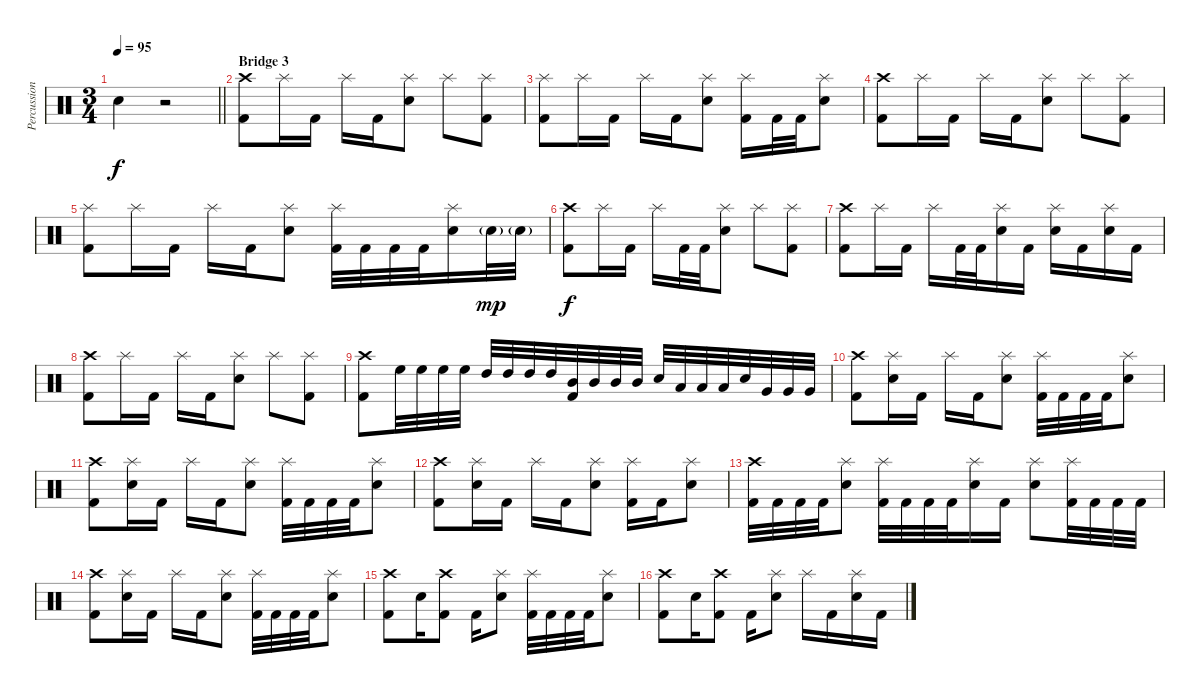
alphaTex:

\track ("Percussion Mike" "Percussion") {instrument percussion}
\staff {score}
\articulation defaults
\ts (3 4)
\tempo 95
\clef neutral
\barLineRight lightlight
\ks c "Snare (hit) 2".4{dy f}
r.2 |
\section ("" "Bridge 3")
("Crash high (hit)" "Kick (hit) 2").8 "Splash (hit)".16 "Kick (hit) 2".16 "Splash (hit)".16 "Kick (hit) 2".16 ("Splash (hit)" "Snare (hit) 2").8 "Splash (hit)".8 ("Splash (hit)" "Kick (hit) 2").8 |
("Splash (hit)" "Kick (hit) 2").8 "Splash (hit)".16 "Kick (hit) 2".16 "Splash (hit)".16 "Kick (hit) 2".16 ("Splash (hit)" "Snare (hit) 2").8 ("Splash (hit)" "Kick (hit) 2").16 "Kick (hit) 2".32 "Kick (hit) 2".32 ("Splash (hit)" "Snare (hit) 2").8 |
("Crash high (hit)" "Kick (hit) 2").8 "Splash (hit)".16 "Kick (hit) 2".16 "Splash (hit)".16 "Kick (hit) 2".16 ("Splash (hit)" "Snare (hit) 2").8 "Splash (hit)".8 ("Splash (hit)" "Kick (hit) 2").8 |
("Splash (hit)" "Kick (hit) 2").8 "Splash (hit)".16 "Kick (hit) 2".16 "Splash (hit)".16 "Kick (hit) 2".16 ("Splash (hit)" "Snare (hit) 2").8 ("Splash (hit)" "Kick (hit) 2").32 "Kick (hit) 2".32 "Kick (hit) 2".32 "Kick (hit) 2".32 ("Splash (hit)" "Snare (hit) 2").16 "Snare (hit) 2"{g}.32{dy mp} "Snare (hit) 2"{g}.32 |
("Crash high (hit)" "Kick (hit) 2").8{dy f} "Splash (hit)".16 "Kick (hit) 2".16 "Splash (hit)".16 "Kick (hit) 2".32 "Kick (hit) 2".32 ("Splash (hit)" "Snare (hit) 2").8 "Splash (hit)".8 ("Splash (hit)" "Kick (hit) 2").8 |
("Crash high (hit)" "Kick (hit) 2").8 "Splash (hit)".16 "Kick (hit) 2".16 "Splash (hit)".16 "Kick (hit) 2".32 "Kick (hit) 2".32 ("Splash (hit)" "Snare (hit) 2").16 "Kick (hit) 2".16 ("Splash (hit)" "Snare (hit) 2").16 "Kick (hit) 2".16 ("Splash (hit)" "Snare (hit) 2").16 "Kick (hit) 2".16 |
("Crash high (hit)" "Kick (hit) 2").8 "Splash (hit)".16 "Kick (hit) 2".16 "Splash (hit)".16 "Kick (hit) 2".16 ("Splash (hit)" "Snare (hit) 2").8 "Splash (hit)".8 ("Splash (hit)" "Kick (hit) 2").8 |
("Crash high (hit)" "Kick (hit) 2").8 "High Floor Tom (hit)".32 "High Floor Tom (hit)".32 "High Floor Tom (hit)".32 "High Floor Tom (hit)".32 "High Tom (hit)".32 "High Tom (hit)".32 "High Tom (hit)".32 "High Tom (hit)".32 ("Mid Tom (hit)" "Kick (hit) 2").32 "Mid Tom (hit)".32 "Mid Tom (hit)".32 "Mid Tom (hit)".32 "Snare (hit) 2".32 "Low Tom (hit)".32 "Low Tom (hit)".32 "Low Tom (hit)".32 "Snare (hit) 2".32 "Very Low Tom (hit)".32 "Very Low Tom (hit)".32 "Very Low Tom (hit)".32 |
("Crash high (hit)" "Kick (hit) 2").8 ("Splash (hit)" "Snare (hit) 2").16 "Kick (hit) 2".16 "Splash (hit)".16 "Kick (hit) 2".16 ("Splash (hit)" "Snare (hit) 2").8 ("Splash (hit)" "Kick (hit) 2").32 "Kick (hit) 2".32 "Kick (hit) 2".32 "Kick (hit) 2".32 ("Splash (hit)" "Snare (hit) 2").8 |
("Crash high (hit)" "Kick (hit) 2").8 ("Splash (hit)" "Snare (hit) 2").16 "Kick (hit) 2".16 "Splash (hit)".16 "Kick (hit) 2".16 ("Splash (hit)" "Snare (hit) 2").8 ("Splash (hit)" "Kick (hit) 2").32 "Kick (hit) 2".32 "Kick (hit) 2".32 "Kick (hit) 2".32 ("Splash (hit)" "Snare (hit) 2").8 |
("Crash high (hit)" "Kick (hit) 2").8 ("Splash (hit)" "Snare (hit) 2").16 "Kick (hit) 2".16 "Splash (hit)".16 "Kick (hit) 2".16 ("Splash (hit)" "Snare (hit) 2").8 ("Splash (hit)" "Kick (hit) 2").16 "Kick (hit) 2".16 ("Splash (hit)" "Snare (hit) 2").8 |
("Crash high (hit)" "Kick (hit) 2").32 "Kick (hit) 2".32 "Kick (hit) 2".32 "Kick (hit) 2".32 ("Splash (hit)" "Snare (hit) 2").8 ("Splash (hit)" "Kick (hit) 2").32 "Kick (hit) 2".32 "Kick (hit) 2".32 "Kick (hit) 2".32 ("Splash (hit)" "Snare (hit) 2").16 "Kick (hit) 2".16 ("Splash (hit)" "Snare (hit) 2").8 ("Splash (hit)" "Kick (hit) 2").32 "Kick (hit) 2".32 "Kick (hit) 2".32 "Kick (hit) 2".32 |
("Crash high (hit)" "Kick (hit) 2").8 ("Splash (hit)" "Snare (hit) 2").16 "Kick (hit) 2".16 "Splash (hit)".16 "Kick (hit) 2".16 ("Splash (hit)" "Snare (hit) 2").8 ("Splash (hit)" "Kick (hit) 2").32 "Kick (hit) 2".32 "Kick (hit) 2".32 "Kick (hit) 2".32 ("Splash (hit)" "Snare (hit) 2").8 |
("Crash high (hit)" "Kick (hit) 2").8 "Snare (hit) 2".16 ("Crash high (hit)" "Kick (hit) 2").8 "Kick (hit) 2".16 ("Splash (hit)" "Snare (hit) 2").8 ("Splash (hit)" "Kick (hit) 2").32 "Kick (hit) 2".32 "Kick (hit) 2".32 "Kick (hit) 2".32 ("Splash (hit)" "Snare (hit) 2").8 |
("Crash high (hit)" "Kick (hit) 2").8 "Snare (hit) 2".16 ("Crash high (hit)" "Kick (hit) 2").8 "Kick (hit) 2".16 ("Splash (hit)" "Snare (hit) 2").8 "Splash (hit)".16 "Kick (hit) 2".16 ("Splash (hit)" "Snare (hit) 2").16 "Kick (hit) 2".16
